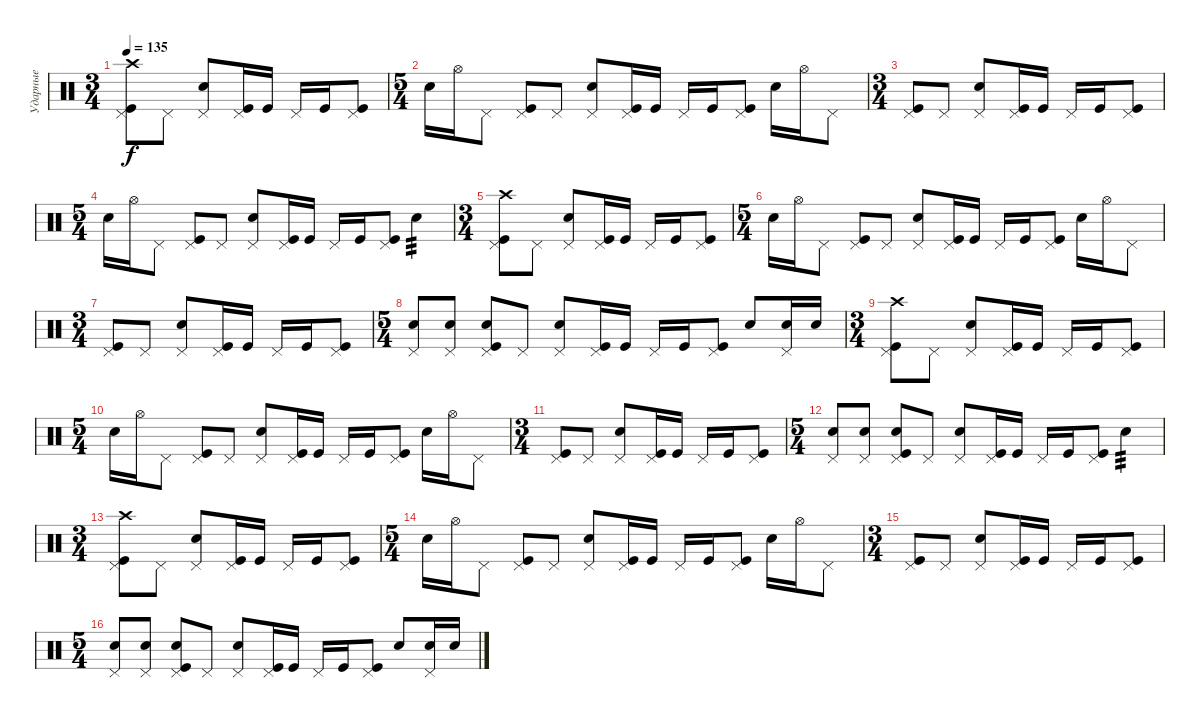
\track ("Ударные" "Ударные") {instrument percussion}
\staff {score}
\articulation defaults
\ts (3 4)
\tempo 135
\clef neutral
\ks c
("Kick (hit)" "Pedal Hi-Hat (hit)" "Crash high (hit)").8{dy f} "Pedal Hi-Hat (hit)".8 ("Pedal Hi-Hat (hit)" "Electric Snare (hit)").8 ("Kick (hit)" "Pedal Hi-Hat (hit)").16 "Kick (hit)".16 "Pedal Hi-Hat (hit)".16 "Kick (hit)".16 ("Kick (hit)" "Pedal Hi-Hat (hit)").8 |
\ts (5 4)
"Electric Snare (hit)".16 "Hi-Hat (open)".16 "Pedal Hi-Hat (hit)".8 ("Kick (hit)" "Pedal Hi-Hat (hit)").8 "Pedal Hi-Hat (hit)".8 ("Pedal Hi-Hat (hit)" "Electric Snare (hit)").8 ("Kick (hit)" "Pedal Hi-Hat (hit)").16 "Kick (hit)".16 "Pedal Hi-Hat (hit)".16 "Kick (hit)".16 ("Kick (hit)" "Pedal Hi-Hat (hit)").8 "Electric Snare (hit)".16 "Hi-Hat (open)".16 "Pedal Hi-Hat (hit)".8 |
\ts (3 4)
("Kick (hit)" "Pedal Hi-Hat (hit)").8 "Pedal Hi-Hat (hit)".8 ("Pedal Hi-Hat (hit)" "Electric Snare (hit)").8 ("Kick (hit)" "Pedal Hi-Hat (hit)").16 "Kick (hit)".16 "Pedal Hi-Hat (hit)".16 "Kick (hit)".16 ("Kick (hit)" "Pedal Hi-Hat (hit)").8 |
\ts (5 4)
"Electric Snare (hit)".16 "Hi-Hat (open)".16 "Pedal Hi-Hat (hit)".8 ("Kick (hit)" "Pedal Hi-Hat (hit)").8 "Pedal Hi-Hat (hit)".8 ("Pedal Hi-Hat (hit)" "Electric Snare (hit)").8 ("Kick (hit)" "Pedal Hi-Hat (hit)").16 "Kick (hit)".16 "Pedal Hi-Hat (hit)".16 "Kick (hit)".16 ("Kick (hit)" "Pedal Hi-Hat (hit)").8 "Electric Snare (hit)".4{tp 3} |
\ts (3 4)
("Kick (hit)" "Pedal Hi-Hat (hit)" "Crash high (hit)").8 "Pedal Hi-Hat (hit)".8 ("Pedal Hi-Hat (hit)" "Electric Snare (hit)").8 ("Kick (hit)" "Pedal Hi-Hat (hit)").16 "Kick (hit)".16 "Pedal Hi-Hat (hit)".16 "Kick (hit)".16 ("Kick (hit)" "Pedal Hi-Hat (hit)").8 |
\ts (5 4)
"Electric Snare (hit)".16 "Hi-Hat (open)".16 "Pedal Hi-Hat (hit)".8 ("Kick (hit)" "Pedal Hi-Hat (hit)").8 "Pedal Hi-Hat (hit)".8 ("Pedal Hi-Hat (hit)" "Electric Snare (hit)").8 ("Kick (hit)" "Pedal Hi-Hat (hit)").16 "Kick (hit)".16 "Pedal Hi-Hat (hit)".16 "Kick (hit)".16 ("Kick (hit)" "Pedal Hi-Hat (hit)").8 "Electric Snare (hit)".16 "Hi-Hat (open)".16 "Pedal Hi-Hat (hit)".8 |
\ts (3 4)
("Kick (hit)" "Pedal Hi-Hat (hit)").8 "Pedal Hi-Hat (hit)".8 ("Pedal Hi-Hat (hit)" "Electric Snare (hit)").8 ("Kick (hit)" "Pedal Hi-Hat (hit)").16 "Kick (hit)".16 "Pedal Hi-Hat (hit)".16 "Kick (hit)".16 ("Kick (hit)" "Pedal Hi-Hat (hit)").8 |
\ts (5 4)
("Pedal Hi-Hat (hit)" "Electric Snare (hit)").8 ("Pedal Hi-Hat (hit)" "Electric Snare (hit)").8 ("Kick (hit)" "Pedal Hi-Hat (hit)" "Electric Snare (hit)").8 "Pedal Hi-Hat (hit)".8 ("Pedal Hi-Hat (hit)" "Electric Snare (hit)").8 ("Kick (hit)" "Pedal Hi-Hat (hit)").16 "Kick (hit)".16 "Pedal Hi-Hat (hit)".16 "Kick (hit)".16 ("Kick (hit)" "Pedal Hi-Hat (hit)").8 "Electric Snare (hit)".8 ("Pedal Hi-Hat (hit)" "Electric Snare (hit)").16 "Electric Snare (hit)".16 |
\ts (3 4)
("Kick (hit)" "Pedal Hi-Hat (hit)" "Crash high (hit)").8 "Pedal Hi-Hat (hit)".8 ("Pedal Hi-Hat (hit)" "Electric Snare (hit)").8 ("Kick (hit)" "Pedal Hi-Hat (hit)").16 "Kick (hit)".16 "Pedal Hi-Hat (hit)".16 "Kick (hit)".16 ("Kick (hit)" "Pedal Hi-Hat (hit)").8 |
\ts (5 4)
"Electric Snare (hit)".16 "Hi-Hat (open)".16 "Pedal Hi-Hat (hit)".8 ("Kick (hit)" "Pedal Hi-Hat (hit)").8 "Pedal Hi-Hat (hit)".8 ("Pedal Hi-Hat (hit)" "Electric Snare (hit)").8 ("Kick (hit)" "Pedal Hi-Hat (hit)").16 "Kick (hit)".16 "Pedal Hi-Hat (hit)".16 "Kick (hit)".16 ("Kick (hit)" "Pedal Hi-Hat (hit)").8 "Electric Snare (hit)".16 "Hi-Hat (open)".16 "Pedal Hi-Hat (hit)".8 |
\ts (3 4)
("Kick (hit)" "Pedal Hi-Hat (hit)").8 "Pedal Hi-Hat (hit)".8 ("Pedal Hi-Hat (hit)" "Electric Snare (hit)").8 ("Kick (hit)" "Pedal Hi-Hat (hit)").16 "Kick (hit)".16 "Pedal Hi-Hat (hit)".16 "Kick (hit)".16 ("Kick (hit)" "Pedal Hi-Hat (hit)").8 |
\ts (5 4)
("Pedal Hi-Hat (hit)" "Electric Snare (hit)").8 ("Pedal Hi-Hat (hit)" "Electric Snare (hit)").8 ("Kick (hit)" "Pedal Hi-Hat (hit)" "Electric Snare (hit)").8 "Pedal Hi-Hat (hit)".8 ("Pedal Hi-Hat (hit)" "Electric Snare (hit)").8 ("Kick (hit)" "Pedal Hi-Hat (hit)").16 "Kick (hit)".16 "Pedal Hi-Hat (hit)".16 "Kick (hit)".16 ("Kick (hit)" "Pedal Hi-Hat (hit)").8 "Electric Snare (hit)".4{tp 3} |
\ts (3 4)
("Kick (hit)" "Pedal Hi-Hat (hit)" "Crash high (hit)").8 "Pedal Hi-Hat (hit)".8 ("Pedal Hi-Hat (hit)" "Electric Snare (hit)").8 ("Kick (hit)" "Pedal Hi-Hat (hit)").16 "Kick (hit)".16 "Pedal Hi-Hat (hit)".16 "Kick (hit)".16 ("Kick (hit)" "Pedal Hi-Hat (hit)").8 |
\ts (5 4)
"Electric Snare (hit)".16 "Hi-Hat (open)".16 "Pedal Hi-Hat (hit)".8 ("Kick (hit)" "Pedal Hi-Hat (hit)").8 "Pedal Hi-Hat (hit)".8 ("Pedal Hi-Hat (hit)" "Electric Snare (hit)").8 ("Kick (hit)" "Pedal Hi-Hat (hit)").16 "Kick (hit)".16 "Pedal Hi-Hat (hit)".16 "Kick (hit)".16 ("Kick (hit)" "Pedal Hi-Hat (hit)").8 "Electric Snare (hit)".16 "Hi-Hat (open)".16 "Pedal Hi-Hat (hit)".8 |
\ts (3 4)
("Kick (hit)" "Pedal Hi-Hat (hit)").8 "Pedal Hi-Hat (hit)".8 ("Pedal Hi-Hat (hit)" "Electric Snare (hit)").8 ("Kick (hit)" "Pedal Hi-Hat (hit)").16 "Kick (hit)".16 "Pedal Hi-Hat (hit)".16 "Kick (hit)".16 ("Kick (hit)" "Pedal Hi-Hat (hit)").8 |
\ts (5 4)
("Pedal Hi-Hat (hit)" "Electric Snare (hit)").8 ("Pedal Hi-Hat (hit)" "Electric Snare (hit)").8 ("Kick (hit)" "Pedal Hi-Hat (hit)" "Electric Snare (hit)").8 "Pedal Hi-Hat (hit)".8 ("Pedal Hi-Hat (hit)" "Electric Snare (hit)").8 ("Kick (hit)" "Pedal Hi-Hat (hit)").16 "Kick (hit)".16 "Pedal Hi-Hat (hit)".16 "Kick (hit)".16 ("Kick (hit)" "Pedal Hi-Hat (hit)").8 "Electric Snare (hit)".8 ("Pedal Hi-Hat (hit)" "Electric Snare (hit)").16 "Electric Snare (hit)".16
